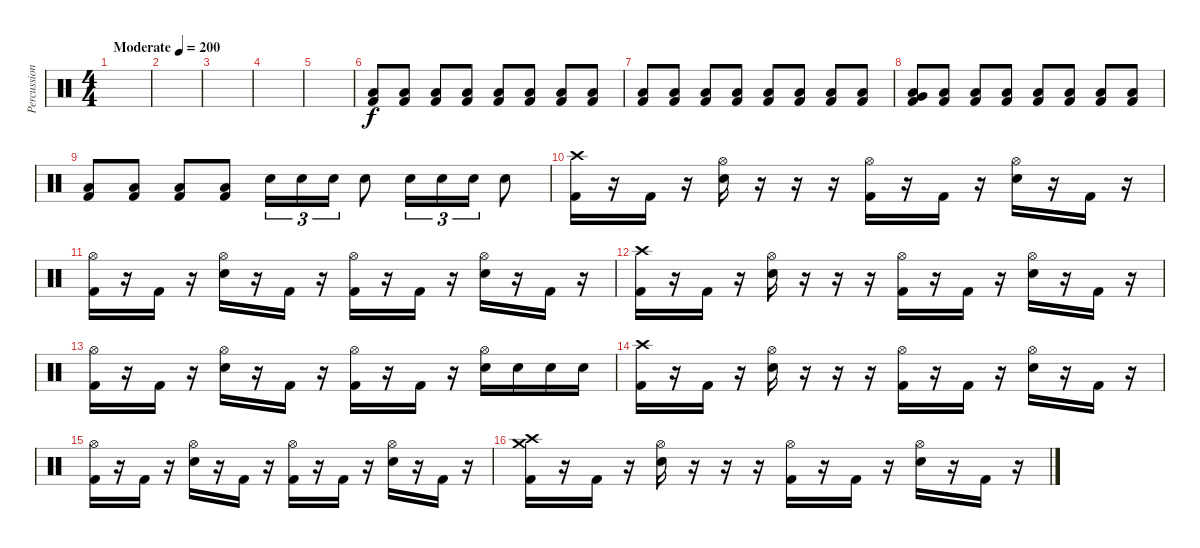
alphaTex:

\track ("Percussion" "Percussion") {instrument percussion}
\staff {score}
\articulation defaults
\ts (4 4)
\tempo (200 "Moderate")
\clef neutral
\ks c
|
|
|
|
|
("Low Floor Tom (hit)" "Kick (hit) 2").8 ("Low Floor Tom (hit)" "Kick (hit) 2").8 ("Low Floor Tom (hit)" "Kick (hit) 2").8 ("Low Floor Tom (hit)" "Kick (hit) 2").8 ("Low Floor Tom (hit)" "Kick (hit) 2").8 ("Low Floor Tom (hit)" "Kick (hit) 2").8 ("Low Floor Tom (hit)" "Kick (hit) 2").8 ("Low Floor Tom (hit)" "Kick (hit) 2").8 |
("Low Floor Tom (hit)" "Kick (hit) 2").8 ("Low Floor Tom (hit)" "Kick (hit) 2").8 ("Low Floor Tom (hit)" "Kick (hit) 2").8 ("Low Floor Tom (hit)" "Kick (hit) 2").8 ("Low Floor Tom (hit)" "Kick (hit) 2").8 ("Low Floor Tom (hit)" "Kick (hit) 2").8 ("Low Floor Tom (hit)" "Kick (hit) 2").8 ("Low Floor Tom (hit)" "Kick (hit) 2").8 |
("Very Low Tom (hit)" "Low Floor Tom (hit)" "Kick (hit) 2").8 ("Low Floor Tom (hit)" "Kick (hit) 2").8 ("Low Floor Tom (hit)" "Kick (hit) 2").8 ("Low Floor Tom (hit)" "Kick (hit) 2").8 ("Low Floor Tom (hit)" "Kick (hit) 2").8 ("Low Floor Tom (hit)" "Kick (hit) 2").8 ("Low Floor Tom (hit)" "Kick (hit) 2").8 ("Low Floor Tom (hit)" "Kick (hit) 2").8 |
("Low Floor Tom (hit)" "Kick (hit) 2").8 ("Low Floor Tom (hit)" "Kick (hit) 2").8 ("Low Floor Tom (hit)" "Kick (hit) 2").8 ("Low Floor Tom (hit)" "Kick (hit) 2").8 "Snare (hit) 2".16{tu (3 2)} "Snare (hit) 2".16{tu (3 2)} "Snare (hit) 2".16{tu (3 2)} "Snare (hit) 2".8 "Snare (hit) 2".16{tu (3 2)} "Snare (hit) 2".16{tu (3 2)} "Snare (hit) 2".16{tu (3 2)} "Snare (hit) 2".8 |
("Crash high (hit)" "Kick (hit) 2").16 r.16 "Kick (hit) 2".16 r.16 ("Hi-Hat (open)" "Snare (hit) 2").16 r.16 r.16 r.16 ("Hi-Hat (open)" "Kick (hit) 2").16 r.16 "Kick (hit) 2".16 r.16 ("Hi-Hat (open)" "Snare (hit) 2").16 r.16 "Kick (hit) 2".16 r.16 |
("Hi-Hat (open)" "Kick (hit) 2").16 r.16 "Kick (hit) 2".16 r.16 ("Hi-Hat (open)" "Snare (hit) 2").16 r.16 "Kick (hit) 2".16 r.16 ("Hi-Hat (open)" "Kick (hit) 2").16 r.16 "Kick (hit) 2".16 r.16 ("Hi-Hat (open)" "Snare (hit) 2").16 r.16 "Kick (hit) 2".16 r.16 |
("Crash high (hit)" "Kick (hit) 2").16 r.16 "Kick (hit) 2".16 r.16 ("Hi-Hat (open)" "Snare (hit) 2").16 r.16 r.16 r.16 ("Hi-Hat (open)" "Kick (hit) 2").16 r.16 "Kick (hit) 2".16 r.16 ("Hi-Hat (open)" "Snare (hit) 2").16 r.16 "Kick (hit) 2".16 r.16 |
("Hi-Hat (open)" "Kick (hit) 2").16 r.16 "Kick (hit) 2".16 r.16 ("Hi-Hat (open)" "Snare (hit) 2").16 r.16 "Kick (hit) 2".16 r.16 ("Hi-Hat (open)" "Kick (hit) 2").16 r.16 "Kick (hit) 2".16 r.16 ("Hi-Hat (open)" "Snare (hit) 2").16 "Snare (hit) 2".16 "Snare (hit) 2".16 "Snare (hit) 2".16 |
("Crash high (hit)" "Kick (hit) 2").16 r.16 "Kick (hit) 2".16 r.16 ("Hi-Hat (open)" "Snare (hit) 2").16 r.16 r.16 r.16 ("Hi-Hat (open)" "Kick (hit) 2").16 r.16 "Kick (hit) 2".16 r.16 ("Hi-Hat (open)" "Snare (hit) 2").16 r.16 "Kick (hit) 2".16 r.16 |
("Hi-Hat (open)" "Kick (hit) 2").16 r.16 "Kick (hit) 2".16 r.16 ("Hi-Hat (open)" "Snare (hit) 2").16 r.16 "Kick (hit) 2".16 r.16 ("Hi-Hat (open)" "Kick (hit) 2").16 r.16 "Kick (hit) 2".16 r.16 ("Hi-Hat (open)" "Snare (hit) 2").16 r.16 "Kick (hit) 2".16 r.16 |
("Crash high (hit)" "Crash medium (hit)" "Kick (hit) 2").16 r.16 "Kick (hit) 2".16 r.16 ("Hi-Hat (open)" "Snare (hit) 2").16 r.16 r.16 r.16 ("Hi-Hat (open)" "Kick (hit) 2").16 r.16 "Kick (hit) 2".16 r.16 ("Hi-Hat (open)" "Snare (hit) 2").16 r.16 "Kick (hit) 2".16 r.16
